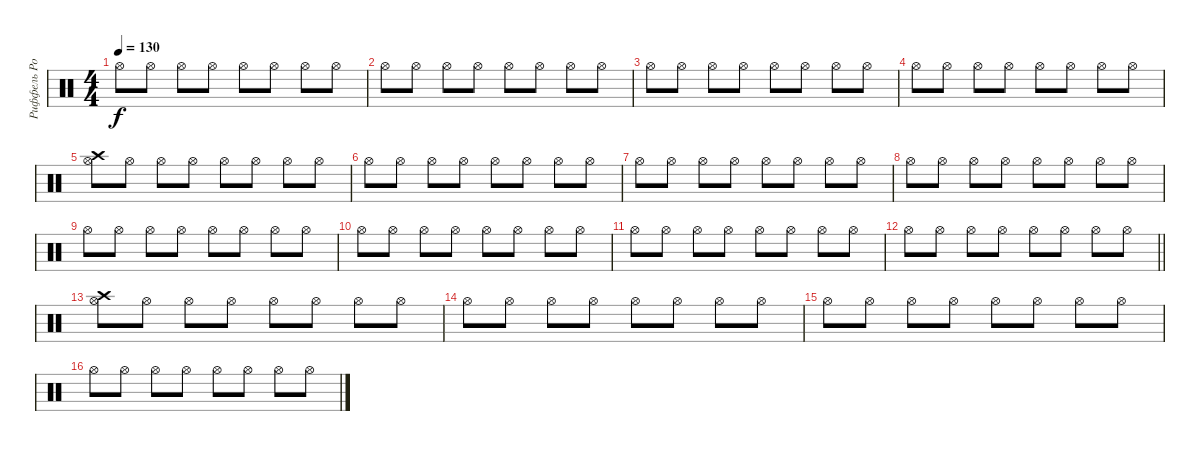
\track ("Риффель Роман (хэты)" "Риффель Ро") {instrument percussion}
\staff {score}
\articulation defaults
\ts (4 4)
\tempo 130
\clef neutral
\ks c "Hi-Hat (open)".8{dy f} "Hi-Hat (open)".8 "Hi-Hat (open)".8 "Hi-Hat (open)".8 "Hi-Hat (open)".8 "Hi-Hat (open)".8 "Hi-Hat (open)".8 "Hi-Hat (open)".8
|
"Hi-Hat (open)".8 "Hi-Hat (open)".8 "Hi-Hat (open)".8 "Hi-Hat (open)".8 "Hi-Hat (open)".8 "Hi-Hat (open)".8 "Hi-Hat (open)".8 "Hi-Hat (open)".8 |
"Hi-Hat (open)".8 "Hi-Hat (open)".8 "Hi-Hat (open)".8 "Hi-Hat (open)".8 "Hi-Hat (open)".8 "Hi-Hat (open)".8 "Hi-Hat (open)".8 "Hi-Hat (open)".8 |
"Hi-Hat (open)".8 "Hi-Hat (open)".8 "Hi-Hat (open)".8 "Hi-Hat (open)".8 "Hi-Hat (open)".8 "Hi-Hat (open)".8 "Hi-Hat (open)".8 "Hi-Hat (open)".8 |
("Crash high (hit)" "Hi-Hat (open)").8 "Hi-Hat (open)".8 "Hi-Hat (open)".8 "Hi-Hat (open)".8 "Hi-Hat (open)".8 "Hi-Hat (open)".8 "Hi-Hat (open)".8 "Hi-Hat (open)".8 |
"Hi-Hat (open)".8 "Hi-Hat (open)".8 "Hi-Hat (open)".8 "Hi-Hat (open)".8 "Hi-Hat (open)".8 "Hi-Hat (open)".8 "Hi-Hat (open)".8 "Hi-Hat (open)".8 |
"Hi-Hat (open)".8 "Hi-Hat (open)".8 "Hi-Hat (open)".8 "Hi-Hat (open)".8 "Hi-Hat (open)".8 "Hi-Hat (open)".8 "Hi-Hat (open)".8 "Hi-Hat (open)".8 |
"Hi-Hat (open)".8 "Hi-Hat (open)".8 "Hi-Hat (open)".8 "Hi-Hat (open)".8 "Hi-Hat (open)".8 "Hi-Hat (open)".8 "Hi-Hat (open)".8 "Hi-Hat (open)".8 |
"Hi-Hat (open)".8 "Hi-Hat (open)".8 "Hi-Hat (open)".8 "Hi-Hat (open)".8 "Hi-Hat (open)".8 "Hi-Hat (open)".8 "Hi-Hat (open)".8 "Hi-Hat (open)".8 |
"Hi-Hat (open)".8 "Hi-Hat (open)".8 "Hi-Hat (open)".8 "Hi-Hat (open)".8 "Hi-Hat (open)".8 "Hi-Hat (open)".8 "Hi-Hat (open)".8 "Hi-Hat (open)".8 |
"Hi-Hat (open)".8 "Hi-Hat (open)".8 "Hi-Hat (open)".8 "Hi-Hat (open)".8 "Hi-Hat (open)".8 "Hi-Hat (open)".8 "Hi-Hat (open)".8 "Hi-Hat (open)".8 |
\barLineRight lightlight "Hi-Hat (open)".8 "Hi-Hat (open)".8 "Hi-Hat (open)".8 "Hi-Hat (open)".8 "Hi-Hat (open)".8 "Hi-Hat (open)".8 "Hi-Hat (open)".8 "Hi-Hat (open)".8
|
("Crash high (hit)" "Hi-Hat (open)").8 "Hi-Hat (open)".8 "Hi-Hat (open)".8 "Hi-Hat (open)".8 "Hi-Hat (open)".8 "Hi-Hat (open)".8 "Hi-Hat (open)".8 "Hi-Hat (open)".8 |
"Hi-Hat (open)".8 "Hi-Hat (open)".8 "Hi-Hat (open)".8 "Hi-Hat (open)".8 "Hi-Hat (open)".8 "Hi-Hat (open)".8 "Hi-Hat (open)".8 "Hi-Hat (open)".8 |
"Hi-Hat (open)".8 "Hi-Hat (open)".8 "Hi-Hat (open)".8 "Hi-Hat (open)".8 "Hi-Hat (open)".8 "Hi-Hat (open)".8 "Hi-Hat (open)".8 "Hi-Hat (open)".8 |
"Hi-Hat (open)".8 "Hi-Hat (open)".8 "Hi-Hat (open)".8 "Hi-Hat (open)".8 "Hi-Hat (open)".8 "Hi-Hat (open)".8 "Hi-Hat (open)".8 "Hi-Hat (open)".8
